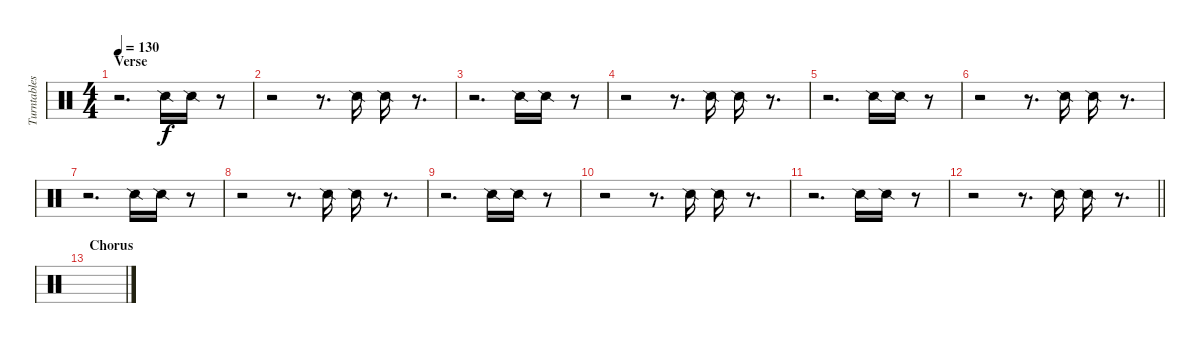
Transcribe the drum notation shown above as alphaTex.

\track ("Turntables - Joe Hahn" "Turntables") {instrument percussion}
\staff {score}
\articulation defaults
\ts (4 4)
\section ("" "Verse")
\tempo 130
\clef neutral
\ks c
r.2{d dy fff} "Snare (side stick) 2".16{dy f} "Snare (side stick) 2".16 r.8 |
r.2 r.8{d} "Snare (side stick) 2".16 "Snare (side stick) 2".16 r.8{d} |
r.2{d} "Snare (side stick) 2".16 "Snare (side stick) 2".16 r.8 |
r.2 r.8{d} "Snare (side stick) 2".16 "Snare (side stick) 2".16 r.8{d} |
r.2{d} "Snare (side stick) 2".16 "Snare (side stick) 2".16 r.8 |
r.2 r.8{d} "Snare (side stick) 2".16 "Snare (side stick) 2".16 r.8{d} |
r.2{d} "Snare (side stick) 2".16 "Snare (side stick) 2".16 r.8 |
r.2 r.8{d} "Snare (side stick) 2".16 "Snare (side stick) 2".16 r.8{d} |
r.2{d} "Snare (side stick) 2".16 "Snare (side stick) 2".16 r.8 |
r.2 r.8{d} "Snare (side stick) 2".16 "Snare (side stick) 2".16 r.8{d} |
r.2{d} "Snare (side stick) 2".16 "Snare (side stick) 2".16 r.8 |
\barLineRight lightlight
r.2 r.8{d} "Snare (side stick) 2".16 "Snare (side stick) 2".16 r.8{d} |
\section ("" "Chorus")
